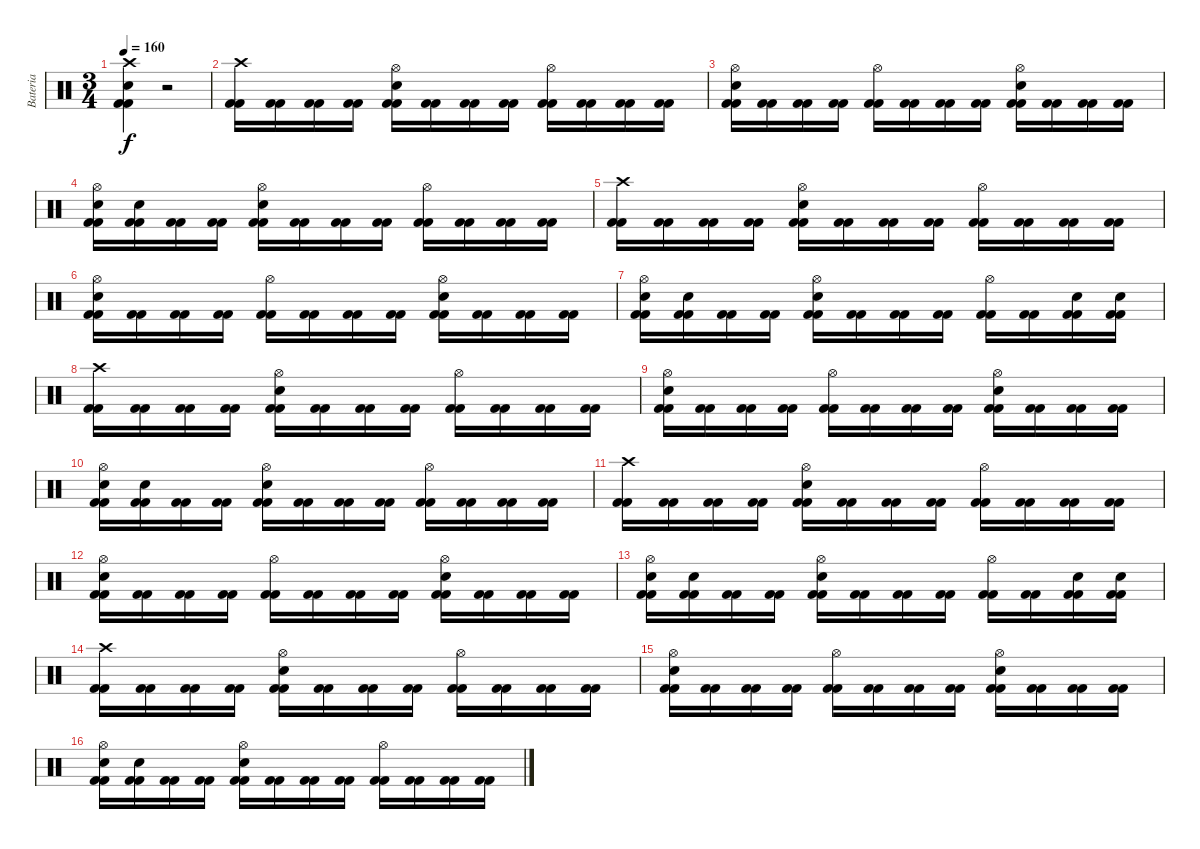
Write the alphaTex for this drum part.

\track ("Bateria" "Bateria") {instrument percussion}
\staff {score}
\articulation defaults
\ts (3 4)
\tempo 160
\clef neutral
\ks c
("Kick (hit) 2" "Kick (hit) 2" "Snare (hit) 2" "Crash high (hit)").4{dy f} r.2 |
("Kick (hit) 2" "Kick (hit) 2" "Crash high (hit)").16 ("Kick (hit) 2" "Kick (hit) 2").16 ("Kick (hit) 2" "Kick (hit) 2").16 ("Kick (hit) 2" "Kick (hit) 2").16 ("Kick (hit) 2" "Kick (hit) 2" "Snare (hit) 2" "Hi-Hat (open)").16 ("Kick (hit) 2" "Kick (hit) 2").16 ("Kick (hit) 2" "Kick (hit) 2").16 ("Kick (hit) 2" "Kick (hit) 2").16 ("Kick (hit) 2" "Kick (hit) 2" "Hi-Hat (open)").16 ("Kick (hit) 2" "Kick (hit) 2").16 ("Kick (hit) 2" "Kick (hit) 2").16 ("Kick (hit) 2" "Kick (hit) 2").16 |
("Kick (hit) 2" "Kick (hit) 2" "Snare (hit) 2" "Hi-Hat (open)").16 ("Kick (hit) 2" "Kick (hit) 2").16 ("Kick (hit) 2" "Kick (hit) 2").16 ("Kick (hit) 2" "Kick (hit) 2").16 ("Kick (hit) 2" "Kick (hit) 2" "Hi-Hat (open)").16 ("Kick (hit) 2" "Kick (hit) 2").16 ("Kick (hit) 2" "Kick (hit) 2").16 ("Kick (hit) 2" "Kick (hit) 2").16 ("Kick (hit) 2" "Kick (hit) 2" "Snare (hit) 2" "Hi-Hat (open)").16 ("Kick (hit) 2" "Kick (hit) 2").16 ("Kick (hit) 2" "Kick (hit) 2").16 ("Kick (hit) 2" "Kick (hit) 2").16 |
("Kick (hit) 2" "Kick (hit) 2" "Snare (hit) 2" "Hi-Hat (open)").16 ("Kick (hit) 2" "Kick (hit) 2" "Snare (hit) 2").16 ("Kick (hit) 2" "Kick (hit) 2").16 ("Kick (hit) 2" "Kick (hit) 2").16 ("Kick (hit) 2" "Kick (hit) 2" "Snare (hit) 2" "Hi-Hat (open)").16 ("Kick (hit) 2" "Kick (hit) 2").16 ("Kick (hit) 2" "Kick (hit) 2").16 ("Kick (hit) 2" "Kick (hit) 2").16 ("Kick (hit) 2" "Kick (hit) 2" "Hi-Hat (open)").16 ("Kick (hit) 2" "Kick (hit) 2").16 ("Kick (hit) 2" "Kick (hit) 2").16 ("Kick (hit) 2" "Kick (hit) 2").16 |
("Kick (hit) 2" "Kick (hit) 2" "Crash high (hit)").16 ("Kick (hit) 2" "Kick (hit) 2").16 ("Kick (hit) 2" "Kick (hit) 2").16 ("Kick (hit) 2" "Kick (hit) 2").16 ("Kick (hit) 2" "Kick (hit) 2" "Snare (hit) 2" "Hi-Hat (open)").16 ("Kick (hit) 2" "Kick (hit) 2").16 ("Kick (hit) 2" "Kick (hit) 2").16 ("Kick (hit) 2" "Kick (hit) 2").16 ("Kick (hit) 2" "Kick (hit) 2" "Hi-Hat (open)").16 ("Kick (hit) 2" "Kick (hit) 2").16 ("Kick (hit) 2" "Kick (hit) 2").16 ("Kick (hit) 2" "Kick (hit) 2").16 |
("Kick (hit) 2" "Kick (hit) 2" "Snare (hit) 2" "Hi-Hat (open)").16 ("Kick (hit) 2" "Kick (hit) 2").16 ("Kick (hit) 2" "Kick (hit) 2").16 ("Kick (hit) 2" "Kick (hit) 2").16 ("Kick (hit) 2" "Kick (hit) 2" "Hi-Hat (open)").16 ("Kick (hit) 2" "Kick (hit) 2").16 ("Kick (hit) 2" "Kick (hit) 2").16 ("Kick (hit) 2" "Kick (hit) 2").16 ("Kick (hit) 2" "Kick (hit) 2" "Snare (hit) 2" "Hi-Hat (open)").16 ("Kick (hit) 2" "Kick (hit) 2").16 ("Kick (hit) 2" "Kick (hit) 2").16 ("Kick (hit) 2" "Kick (hit) 2").16 |
("Kick (hit) 2" "Kick (hit) 2" "Snare (hit) 2" "Hi-Hat (open)").16 ("Kick (hit) 2" "Kick (hit) 2" "Snare (hit) 2").16 ("Kick (hit) 2" "Kick (hit) 2").16 ("Kick (hit) 2" "Kick (hit) 2").16 ("Kick (hit) 2" "Kick (hit) 2" "Snare (hit) 2" "Hi-Hat (open)").16 ("Kick (hit) 2" "Kick (hit) 2").16 ("Kick (hit) 2" "Kick (hit) 2").16 ("Kick (hit) 2" "Kick (hit) 2").16 ("Kick (hit) 2" "Kick (hit) 2" "Hi-Hat (open)").16 ("Kick (hit) 2" "Kick (hit) 2").16 ("Kick (hit) 2" "Kick (hit) 2" "Snare (hit) 2").16 ("Kick (hit) 2" "Kick (hit) 2" "Snare (hit) 2").16 |
("Kick (hit) 2" "Kick (hit) 2" "Crash high (hit)").16 ("Kick (hit) 2" "Kick (hit) 2").16 ("Kick (hit) 2" "Kick (hit) 2").16 ("Kick (hit) 2" "Kick (hit) 2").16 ("Kick (hit) 2" "Kick (hit) 2" "Snare (hit) 2" "Hi-Hat (open)").16 ("Kick (hit) 2" "Kick (hit) 2").16 ("Kick (hit) 2" "Kick (hit) 2").16 ("Kick (hit) 2" "Kick (hit) 2").16 ("Kick (hit) 2" "Kick (hit) 2" "Hi-Hat (open)").16 ("Kick (hit) 2" "Kick (hit) 2").16 ("Kick (hit) 2" "Kick (hit) 2").16 ("Kick (hit) 2" "Kick (hit) 2").16 |
("Kick (hit) 2" "Kick (hit) 2" "Snare (hit) 2" "Hi-Hat (open)").16 ("Kick (hit) 2" "Kick (hit) 2").16 ("Kick (hit) 2" "Kick (hit) 2").16 ("Kick (hit) 2" "Kick (hit) 2").16 ("Kick (hit) 2" "Kick (hit) 2" "Hi-Hat (open)").16 ("Kick (hit) 2" "Kick (hit) 2").16 ("Kick (hit) 2" "Kick (hit) 2").16 ("Kick (hit) 2" "Kick (hit) 2").16 ("Kick (hit) 2" "Kick (hit) 2" "Snare (hit) 2" "Hi-Hat (open)").16 ("Kick (hit) 2" "Kick (hit) 2").16 ("Kick (hit) 2" "Kick (hit) 2").16 ("Kick (hit) 2" "Kick (hit) 2").16 |
("Kick (hit) 2" "Kick (hit) 2" "Snare (hit) 2" "Hi-Hat (open)").16 ("Kick (hit) 2" "Kick (hit) 2" "Snare (hit) 2").16 ("Kick (hit) 2" "Kick (hit) 2").16 ("Kick (hit) 2" "Kick (hit) 2").16 ("Kick (hit) 2" "Kick (hit) 2" "Snare (hit) 2" "Hi-Hat (open)").16 ("Kick (hit) 2" "Kick (hit) 2").16 ("Kick (hit) 2" "Kick (hit) 2").16 ("Kick (hit) 2" "Kick (hit) 2").16 ("Kick (hit) 2" "Kick (hit) 2" "Hi-Hat (open)").16 ("Kick (hit) 2" "Kick (hit) 2").16 ("Kick (hit) 2" "Kick (hit) 2").16 ("Kick (hit) 2" "Kick (hit) 2").16 |
("Kick (hit) 2" "Kick (hit) 2" "Crash high (hit)").16 ("Kick (hit) 2" "Kick (hit) 2").16 ("Kick (hit) 2" "Kick (hit) 2").16 ("Kick (hit) 2" "Kick (hit) 2").16 ("Kick (hit) 2" "Kick (hit) 2" "Snare (hit) 2" "Hi-Hat (open)").16 ("Kick (hit) 2" "Kick (hit) 2").16 ("Kick (hit) 2" "Kick (hit) 2").16 ("Kick (hit) 2" "Kick (hit) 2").16 ("Kick (hit) 2" "Kick (hit) 2" "Hi-Hat (open)").16 ("Kick (hit) 2" "Kick (hit) 2").16 ("Kick (hit) 2" "Kick (hit) 2").16 ("Kick (hit) 2" "Kick (hit) 2").16 |
("Kick (hit) 2" "Kick (hit) 2" "Snare (hit) 2" "Hi-Hat (open)").16 ("Kick (hit) 2" "Kick (hit) 2").16 ("Kick (hit) 2" "Kick (hit) 2").16 ("Kick (hit) 2" "Kick (hit) 2").16 ("Kick (hit) 2" "Kick (hit) 2" "Hi-Hat (open)").16 ("Kick (hit) 2" "Kick (hit) 2").16 ("Kick (hit) 2" "Kick (hit) 2").16 ("Kick (hit) 2" "Kick (hit) 2").16 ("Kick (hit) 2" "Kick (hit) 2" "Snare (hit) 2" "Hi-Hat (open)").16 ("Kick (hit) 2" "Kick (hit) 2").16 ("Kick (hit) 2" "Kick (hit) 2").16 ("Kick (hit) 2" "Kick (hit) 2").16 |
("Kick (hit) 2" "Kick (hit) 2" "Snare (hit) 2" "Hi-Hat (open)").16 ("Kick (hit) 2" "Kick (hit) 2" "Snare (hit) 2").16 ("Kick (hit) 2" "Kick (hit) 2").16 ("Kick (hit) 2" "Kick (hit) 2").16 ("Kick (hit) 2" "Kick (hit) 2" "Snare (hit) 2" "Hi-Hat (open)").16 ("Kick (hit) 2" "Kick (hit) 2").16 ("Kick (hit) 2" "Kick (hit) 2").16 ("Kick (hit) 2" "Kick (hit) 2").16 ("Kick (hit) 2" "Kick (hit) 2" "Hi-Hat (open)").16 ("Kick (hit) 2" "Kick (hit) 2").16 ("Kick (hit) 2" "Kick (hit) 2" "Snare (hit) 2").16 ("Kick (hit) 2" "Kick (hit) 2" "Snare (hit) 2").16 |
("Kick (hit) 2" "Kick (hit) 2" "Crash high (hit)").16 ("Kick (hit) 2" "Kick (hit) 2").16 ("Kick (hit) 2" "Kick (hit) 2").16 ("Kick (hit) 2" "Kick (hit) 2").16 ("Kick (hit) 2" "Kick (hit) 2" "Snare (hit) 2" "Hi-Hat (open)").16 ("Kick (hit) 2" "Kick (hit) 2").16 ("Kick (hit) 2" "Kick (hit) 2").16 ("Kick (hit) 2" "Kick (hit) 2").16 ("Kick (hit) 2" "Kick (hit) 2" "Hi-Hat (open)").16 ("Kick (hit) 2" "Kick (hit) 2").16 ("Kick (hit) 2" "Kick (hit) 2").16 ("Kick (hit) 2" "Kick (hit) 2").16 |
("Kick (hit) 2" "Kick (hit) 2" "Snare (hit) 2" "Hi-Hat (open)").16 ("Kick (hit) 2" "Kick (hit) 2").16 ("Kick (hit) 2" "Kick (hit) 2").16 ("Kick (hit) 2" "Kick (hit) 2").16 ("Kick (hit) 2" "Kick (hit) 2" "Hi-Hat (open)").16 ("Kick (hit) 2" "Kick (hit) 2").16 ("Kick (hit) 2" "Kick (hit) 2").16 ("Kick (hit) 2" "Kick (hit) 2").16 ("Kick (hit) 2" "Kick (hit) 2" "Snare (hit) 2" "Hi-Hat (open)").16 ("Kick (hit) 2" "Kick (hit) 2").16 ("Kick (hit) 2" "Kick (hit) 2").16 ("Kick (hit) 2" "Kick (hit) 2").16 |
("Kick (hit) 2" "Kick (hit) 2" "Snare (hit) 2" "Hi-Hat (open)").16 ("Kick (hit) 2" "Kick (hit) 2" "Snare (hit) 2").16 ("Kick (hit) 2" "Kick (hit) 2").16 ("Kick (hit) 2" "Kick (hit) 2").16 ("Kick (hit) 2" "Kick (hit) 2" "Snare (hit) 2" "Hi-Hat (open)").16 ("Kick (hit) 2" "Kick (hit) 2").16 ("Kick (hit) 2" "Kick (hit) 2").16 ("Kick (hit) 2" "Kick (hit) 2").16 ("Kick (hit) 2" "Kick (hit) 2" "Hi-Hat (open)").16 ("Kick (hit) 2" "Kick (hit) 2").16 ("Kick (hit) 2" "Kick (hit) 2").16 ("Kick (hit) 2" "Kick (hit) 2").16
